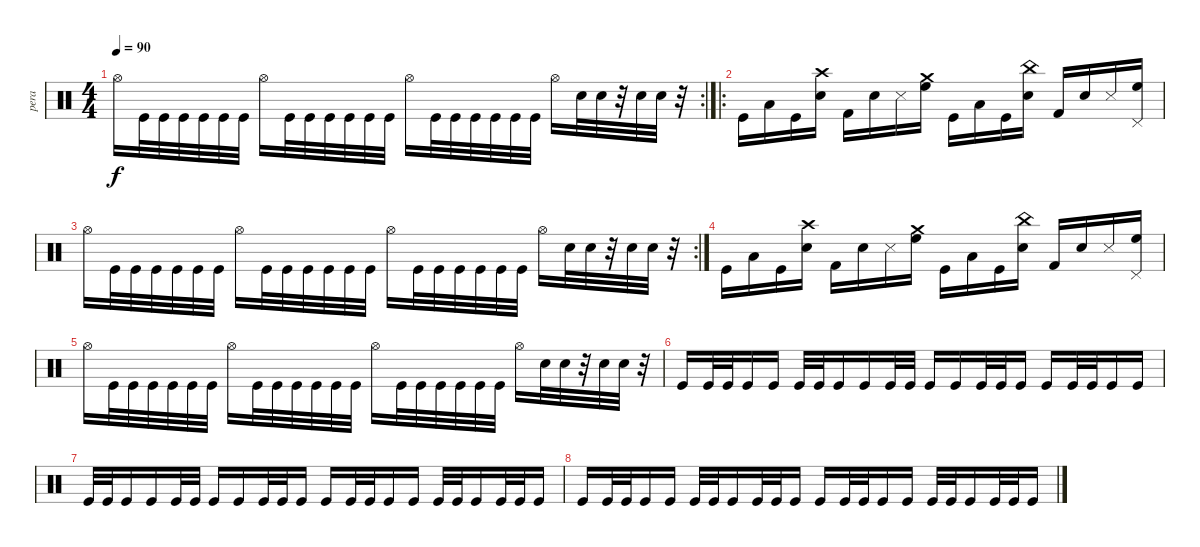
\track ("pera" "pera") {instrument percussion}
\staff {score}
\articulation defaults
\rc 2
\ts (4 4)
\tempo 90
\clef neutral
\ks c "Hi-Hat (open)".16{dy f} "Kick (hit)".32 "Kick (hit)".32 "Kick (hit)".32 "Kick (hit)".32 "Kick (hit)".32 "Kick (hit)".32 "Hi-Hat (open)".16 "Kick (hit)".32 "Kick (hit)".32 "Kick (hit)".32 "Kick (hit)".32 "Kick (hit)".32 "Kick (hit)".32 "Hi-Hat (open)".16 "Kick (hit)".32 "Kick (hit)".32 "Kick (hit)".32 "Kick (hit)".32 "Kick (hit)".32 "Kick (hit)".32 "Hi-Hat (open)".16 "Electric Snare (hit)".32 "Electric Snare (hit)".32
r.32 "Electric Snare (hit)".32 "Electric Snare (hit)".32 r.32 |
\ro "Kick (hit)".16 "Low Tom (hit)".16 "Kick (hit)".16
("Crash high (hit)" "Electric Snare (hit)").16 "Kick (hit) 2".16 "Snare (hit) 2".16 "Metronome (hit)".16 ("Crash medium (hit)" "High Floor Tom (hit)").16 "Kick (hit)".16 "Low Tom (hit)".16 "Kick (hit)".16 ("China (hit)" "Electric Snare (hit)").16 "Kick (hit) 2".16 "Snare (hit) 2".16 "Metronome (hit)".16 ("Pedal Hi-Hat (hit)" "High Floor Tom (hit)").16 |
\rc 2 "Hi-Hat (open)".16 "Kick (hit)".32 "Kick (hit)".32 "Kick (hit)".32 "Kick (hit)".32 "Kick (hit)".32 "Kick (hit)".32 "Hi-Hat (open)".16 "Kick (hit)".32 "Kick (hit)".32 "Kick (hit)".32 "Kick (hit)".32 "Kick (hit)".32 "Kick (hit)".32 "Hi-Hat (open)".16 "Kick (hit)".32 "Kick (hit)".32 "Kick (hit)".32 "Kick (hit)".32 "Kick (hit)".32 "Kick (hit)".32 "Hi-Hat (open)".16 "Electric Snare (hit)".32 "Electric Snare (hit)".32
r.32 "Electric Snare (hit)".32 "Electric Snare (hit)".32 r.32 |
"Kick (hit)".16 "Low Tom (hit)".16 "Kick (hit)".16 ("Crash high (hit)" "Electric Snare (hit)").16 "Kick (hit) 2".16 "Snare (hit) 2".16 "Metronome (hit)".16 ("Crash medium (hit)" "High Floor Tom (hit)").16 "Kick (hit)".16 "Low Tom (hit)".16 "Kick (hit)".16 ("China (hit)" "Electric Snare (hit)").16 "Kick (hit) 2".16 "Snare (hit) 2".16 "Metronome (hit)".16 ("Pedal Hi-Hat (hit)" "High Floor Tom (hit)").16 |
"Hi-Hat (open)".16 "Kick (hit)".32 "Kick (hit)".32 "Kick (hit)".32 "Kick (hit)".32 "Kick (hit)".32 "Kick (hit)".32 "Hi-Hat (open)".16 "Kick (hit)".32 "Kick (hit)".32 "Kick (hit)".32 "Kick (hit)".32 "Kick (hit)".32 "Kick (hit)".32 "Hi-Hat (open)".16 "Kick (hit)".32 "Kick (hit)".32 "Kick (hit)".32 "Kick (hit)".32 "Kick (hit)".32 "Kick (hit)".32 "Hi-Hat (open)".16 "Electric Snare (hit)".32 "Electric Snare (hit)".32 r.32 "Electric Snare (hit)".32 "Electric Snare (hit)".32 r.32 |
"Kick (hit)".16 "Kick (hit)".32 "Kick (hit)".32 "Kick (hit)".16 "Kick (hit)".16 "Kick (hit)".32 "Kick (hit)".32 "Kick (hit)".16 "Kick (hit)".16 "Kick (hit)".32 "Kick (hit)".32 "Kick (hit)".16 "Kick (hit)".16 "Kick (hit)".32 "Kick (hit)".32 "Kick (hit)".16 "Kick (hit)".16 "Kick (hit)".32 "Kick (hit)".32 "Kick (hit)".16 "Kick (hit)".16 |
"Kick (hit)".32 "Kick (hit)".32 "Kick (hit)".16 "Kick (hit)".16 "Kick (hit)".32 "Kick (hit)".32 "Kick (hit)".16 "Kick (hit)".16 "Kick (hit)".32 "Kick (hit)".32 "Kick (hit)".16 "Kick (hit)".16 "Kick (hit)".32 "Kick (hit)".32 "Kick (hit)".16 "Kick (hit)".16 "Kick (hit)".32 "Kick (hit)".32 "Kick (hit)".16 "Kick (hit)".32 "Kick (hit)".32 "Kick (hit)".16 |
"Kick (hit)".16 "Kick (hit)".32 "Kick (hit)".32 "Kick (hit)".16 "Kick (hit)".16 "Kick (hit)".32 "Kick (hit)".32 "Kick (hit)".16 "Kick (hit)".32 "Kick (hit)".32 "Kick (hit)".16 "Kick (hit)".16 "Kick (hit)".32 "Kick (hit)".32 "Kick (hit)".16 "Kick (hit)".16 "Kick (hit)".32 "Kick (hit)".32 "Kick (hit)".16 "Kick (hit)".32 "Kick (hit)".32 "Kick (hit)".16
